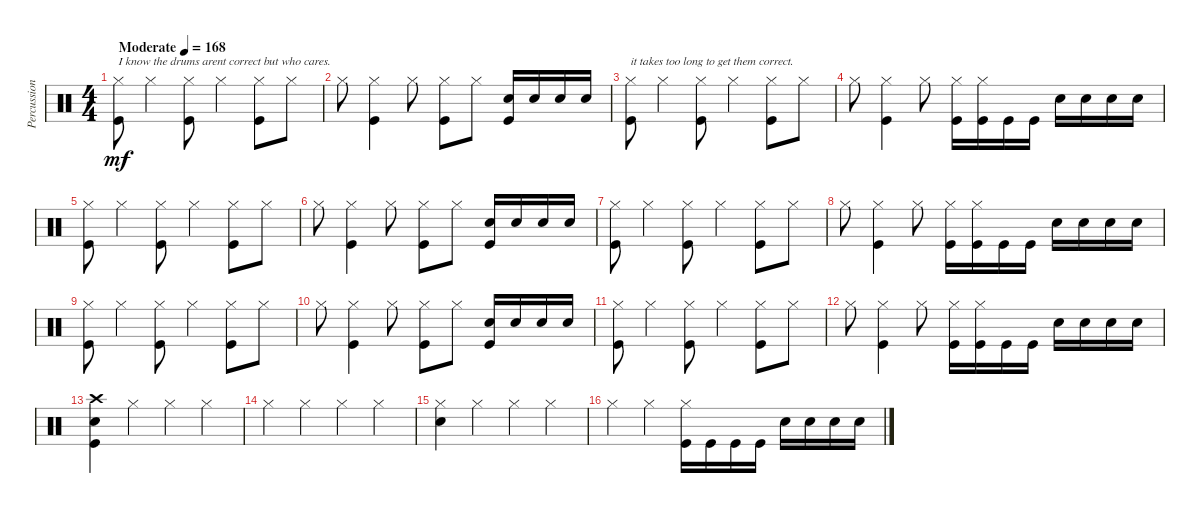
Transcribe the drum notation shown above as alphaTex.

\track ("Percussion" "Percussion") {instrument percussion}
\staff {score}
\articulation defaults
\ts (4 4)
\tempo (168 "Moderate")
\clef neutral
\ks c
("Hi-Hat (closed)" "Kick (hit)").8{txt "I know the drums arent correct but who cares." dy mf} "Hi-Hat (closed)".4 ("Hi-Hat (closed)" "Kick (hit)").8 "Hi-Hat (closed)".4 ("Hi-Hat (closed)" "Kick (hit)").8 "Hi-Hat (closed)".8 |
"Hi-Hat (closed)".8 ("Hi-Hat (closed)" "Kick (hit)").4 "Hi-Hat (closed)".8 ("Hi-Hat (closed)" "Kick (hit)").8 "Hi-Hat (closed)".8 ("Electric Snare (hit)" "Kick (hit)").16 "Electric Snare (hit)".16 "Electric Snare (hit)".16 "Electric Snare (hit)".16 |
("Hi-Hat (closed)" "Kick (hit)").8{txt "it takes too long to get them correct."} "Hi-Hat (closed)".4 ("Hi-Hat (closed)" "Kick (hit)").8 "Hi-Hat (closed)".4 ("Hi-Hat (closed)" "Kick (hit)").8 "Hi-Hat (closed)".8 |
"Hi-Hat (closed)".8 ("Hi-Hat (closed)" "Kick (hit)").4 "Hi-Hat (closed)".8 ("Hi-Hat (closed)" "Kick (hit)").16 ("Hi-Hat (closed)" "Kick (hit)").16 "Kick (hit)".16 "Kick (hit)".16 "Electric Snare (hit)".16 "Electric Snare (hit)".16 "Electric Snare (hit)".16 "Electric Snare (hit)".16 |
("Hi-Hat (closed)" "Kick (hit)").8 "Hi-Hat (closed)".4 ("Hi-Hat (closed)" "Kick (hit)").8 "Hi-Hat (closed)".4 ("Hi-Hat (closed)" "Kick (hit)").8 "Hi-Hat (closed)".8 |
"Hi-Hat (closed)".8 ("Hi-Hat (closed)" "Kick (hit)").4 "Hi-Hat (closed)".8 ("Hi-Hat (closed)" "Kick (hit)").8 "Hi-Hat (closed)".8 ("Electric Snare (hit)" "Kick (hit)").16 "Electric Snare (hit)".16 "Electric Snare (hit)".16 "Electric Snare (hit)".16 |
("Hi-Hat (closed)" "Kick (hit)").8 "Hi-Hat (closed)".4 ("Hi-Hat (closed)" "Kick (hit)").8 "Hi-Hat (closed)".4 ("Hi-Hat (closed)" "Kick (hit)").8 "Hi-Hat (closed)".8 |
"Hi-Hat (closed)".8 ("Hi-Hat (closed)" "Kick (hit)").4 "Hi-Hat (closed)".8 ("Hi-Hat (closed)" "Kick (hit)").16 ("Hi-Hat (closed)" "Kick (hit)").16 "Kick (hit)".16 "Kick (hit)".16 "Electric Snare (hit)".16 "Electric Snare (hit)".16 "Electric Snare (hit)".16 "Electric Snare (hit)".16 |
("Hi-Hat (closed)" "Kick (hit)").8 "Hi-Hat (closed)".4 ("Hi-Hat (closed)" "Kick (hit)").8 "Hi-Hat (closed)".4 ("Hi-Hat (closed)" "Kick (hit)").8 "Hi-Hat (closed)".8 |
"Hi-Hat (closed)".8 ("Hi-Hat (closed)" "Kick (hit)").4 "Hi-Hat (closed)".8 ("Hi-Hat (closed)" "Kick (hit)").8 "Hi-Hat (closed)".8 ("Electric Snare (hit)" "Kick (hit)").16 "Electric Snare (hit)".16 "Electric Snare (hit)".16 "Electric Snare (hit)".16 |
("Hi-Hat (closed)" "Kick (hit)").8 "Hi-Hat (closed)".4 ("Hi-Hat (closed)" "Kick (hit)").8 "Hi-Hat (closed)".4 ("Hi-Hat (closed)" "Kick (hit)").8 "Hi-Hat (closed)".8 |
"Hi-Hat (closed)".8 ("Hi-Hat (closed)" "Kick (hit)").4 "Hi-Hat (closed)".8 ("Hi-Hat (closed)" "Kick (hit)").16 ("Hi-Hat (closed)" "Kick (hit)").16 "Kick (hit)".16 "Kick (hit)".16 "Electric Snare (hit)".16 "Electric Snare (hit)".16 "Electric Snare (hit)".16 "Electric Snare (hit)".16 |
("Crash high (hit)" "Electric Snare (hit)" "Kick (hit)").4 "Hi-Hat (closed)".4 "Hi-Hat (closed)".4 "Hi-Hat (closed)".4 |
"Hi-Hat (closed)".4 "Hi-Hat (closed)".4 "Hi-Hat (closed)".4 "Hi-Hat (closed)".4 |
("Hi-Hat (closed)" "Electric Snare (hit)").4 "Hi-Hat (closed)".4 "Hi-Hat (closed)".4 "Hi-Hat (closed)".4 |
"Hi-Hat (closed)".4 "Hi-Hat (closed)".4 ("Hi-Hat (closed)" "Kick (hit)").16 "Kick (hit)".16 "Kick (hit)".16 "Kick (hit)".16 "Electric Snare (hit)".16 "Electric Snare (hit)".16 "Electric Snare (hit)".16 "Electric Snare (hit)".16
